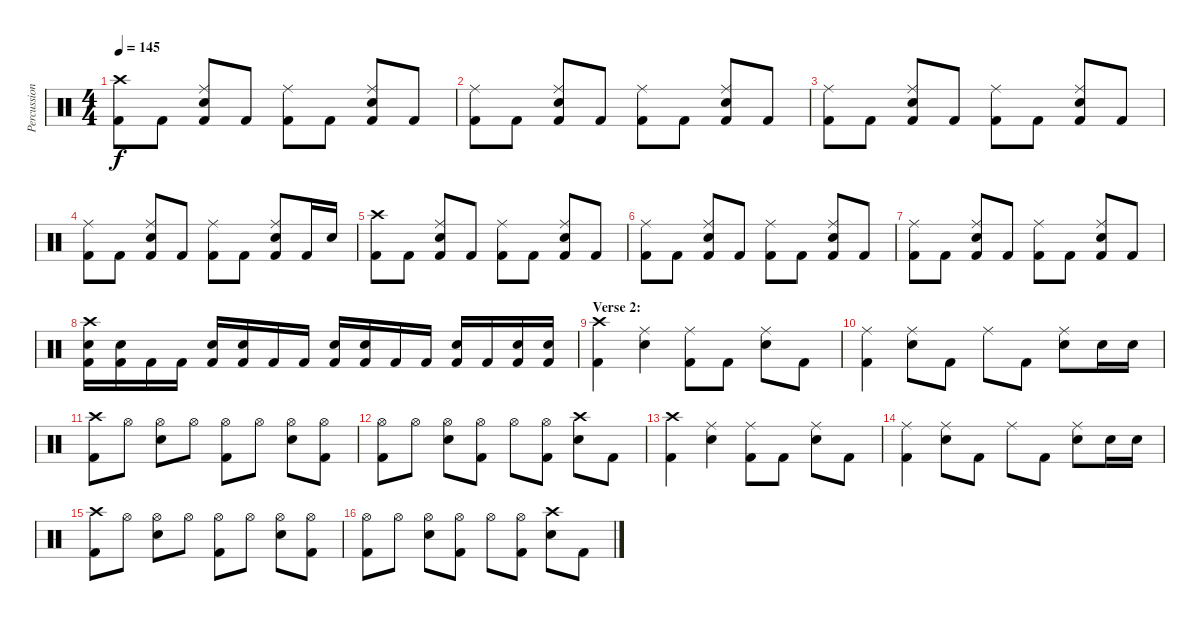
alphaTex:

\track ("Percussion" "Percussion") {instrument percussion}
\staff {score}
\articulation defaults
\ts (4 4)
\tempo 145
\clef neutral
\ks c
("Crash high (hit)" "Kick (hit) 2").8{dy f} "Kick (hit) 2".8 ("Ride (middle)" "Electric Snare (hit)" "Kick (hit) 2").8 "Kick (hit) 2".8 ("Ride (middle)" "Kick (hit) 2").8 "Kick (hit) 2".8 ("Ride (middle)" "Electric Snare (hit)" "Kick (hit) 2").8 "Kick (hit) 2".8 |
("Ride (middle)" "Kick (hit) 2").8 "Kick (hit) 2".8 ("Ride (middle)" "Electric Snare (hit)" "Kick (hit) 2").8 "Kick (hit) 2".8 ("Ride (middle)" "Kick (hit) 2").8 "Kick (hit) 2".8 ("Ride (middle)" "Electric Snare (hit)" "Kick (hit) 2").8 "Kick (hit) 2".8 |
("Ride (middle)" "Kick (hit) 2").8 "Kick (hit) 2".8 ("Ride (middle)" "Electric Snare (hit)" "Kick (hit) 2").8 "Kick (hit) 2".8 ("Ride (middle)" "Kick (hit) 2").8 "Kick (hit) 2".8 ("Ride (middle)" "Electric Snare (hit)" "Kick (hit) 2").8 "Kick (hit) 2".8 |
("Ride (middle)" "Kick (hit) 2").8 "Kick (hit) 2".8 ("Ride (middle)" "Electric Snare (hit)" "Kick (hit) 2").8 "Kick (hit) 2".8 ("Ride (middle)" "Kick (hit) 2").8 "Kick (hit) 2".8 ("Ride (middle)" "Electric Snare (hit)" "Kick (hit) 2").8 "Kick (hit) 2".16 "Electric Snare (hit)".16 |
("Crash high (hit)" "Kick (hit) 2").8 "Kick (hit) 2".8 ("Ride (middle)" "Electric Snare (hit)" "Kick (hit) 2").8 "Kick (hit) 2".8 ("Ride (middle)" "Kick (hit) 2").8 "Kick (hit) 2".8 ("Ride (middle)" "Electric Snare (hit)" "Kick (hit) 2").8 "Kick (hit) 2".8 |
("Ride (middle)" "Kick (hit) 2").8 "Kick (hit) 2".8 ("Ride (middle)" "Electric Snare (hit)" "Kick (hit) 2").8 "Kick (hit) 2".8 ("Ride (middle)" "Kick (hit) 2").8 "Kick (hit) 2".8 ("Ride (middle)" "Electric Snare (hit)" "Kick (hit) 2").8 "Kick (hit) 2".8 |
("Ride (middle)" "Kick (hit) 2").8 "Kick (hit) 2".8 ("Ride (middle)" "Electric Snare (hit)" "Kick (hit) 2").8 "Kick (hit) 2".8 ("Ride (middle)" "Kick (hit) 2").8 "Kick (hit) 2".8 ("Ride (middle)" "Electric Snare (hit)" "Kick (hit) 2").8 "Kick (hit) 2".8 |
("Crash high (hit)" "Electric Snare (hit)" "Kick (hit) 2").16 ("Electric Snare (hit)" "Kick (hit) 2").16 "Kick (hit) 2".16 "Kick (hit) 2".16 ("Electric Snare (hit)" "Kick (hit) 2").16 ("Electric Snare (hit)" "Kick (hit) 2").16 "Kick (hit) 2".16 "Kick (hit) 2".16 ("Electric Snare (hit)" "Kick (hit) 2").16 ("Electric Snare (hit)" "Kick (hit) 2").16 "Kick (hit) 2".16 "Kick (hit) 2".16 ("Electric Snare (hit)" "Kick (hit) 2").16 "Kick (hit) 2".16 ("Electric Snare (hit)" "Kick (hit) 2").16 ("Electric Snare (hit)" "Kick (hit) 2").16 |
\section ("" "Verse 2:")
("Crash high (hit)" "Kick (hit) 2").4 ("Ride (middle)" "Electric Snare (hit)").4 ("Ride (middle)" "Kick (hit) 2").8 "Kick (hit) 2".8 ("Ride (middle)" "Electric Snare (hit)").8 "Kick (hit) 2".8 |
("Ride (middle)" "Kick (hit) 2").4 ("Ride (middle)" "Electric Snare (hit)").8 "Kick (hit) 2".8 "Ride (middle)".8 "Kick (hit) 2".8 ("Ride (middle)" "Electric Snare (hit)").8 "Electric Snare (hit)".16 "Electric Snare (hit)".16 |
("Crash high (hit)" "Kick (hit) 2").8 "Hi-Hat (open)".8 ("Hi-Hat (open)" "Electric Snare (hit)").8 "Hi-Hat (open)".8 ("Hi-Hat (open)" "Kick (hit) 2").8 "Hi-Hat (open)".8 ("Hi-Hat (open)" "Electric Snare (hit)").8 ("Hi-Hat (open)" "Kick (hit) 2").8 |
("Hi-Hat (open)" "Kick (hit) 2").8 "Hi-Hat (open)".8 ("Hi-Hat (open)" "Electric Snare (hit)").8 ("Hi-Hat (open)" "Kick (hit) 2").8 "Hi-Hat (open)".8 ("Hi-Hat (open)" "Kick (hit) 2").8 ("Crash high (hit)" "Electric Snare (hit)").8 "Kick (hit) 2".8 |
("Crash high (hit)" "Kick (hit) 2").4 ("Ride (middle)" "Electric Snare (hit)").4 ("Ride (middle)" "Kick (hit) 2").8 "Kick (hit) 2".8 ("Ride (middle)" "Electric Snare (hit)").8 "Kick (hit) 2".8 |
("Ride (middle)" "Kick (hit) 2").4 ("Ride (middle)" "Electric Snare (hit)").8 "Kick (hit) 2".8 "Ride (middle)".8 "Kick (hit) 2".8 ("Ride (middle)" "Electric Snare (hit)").8 "Electric Snare (hit)".16 "Electric Snare (hit)".16 |
("Crash high (hit)" "Kick (hit) 2").8 "Hi-Hat (open)".8 ("Hi-Hat (open)" "Electric Snare (hit)").8 "Hi-Hat (open)".8 ("Hi-Hat (open)" "Kick (hit) 2").8 "Hi-Hat (open)".8 ("Hi-Hat (open)" "Electric Snare (hit)").8 ("Hi-Hat (open)" "Kick (hit) 2").8 |
("Hi-Hat (open)" "Kick (hit) 2").8 "Hi-Hat (open)".8 ("Hi-Hat (open)" "Electric Snare (hit)").8 ("Hi-Hat (open)" "Kick (hit) 2").8 "Hi-Hat (open)".8 ("Hi-Hat (open)" "Kick (hit) 2").8 ("Crash high (hit)" "Electric Snare (hit)").8 "Kick (hit) 2".8
